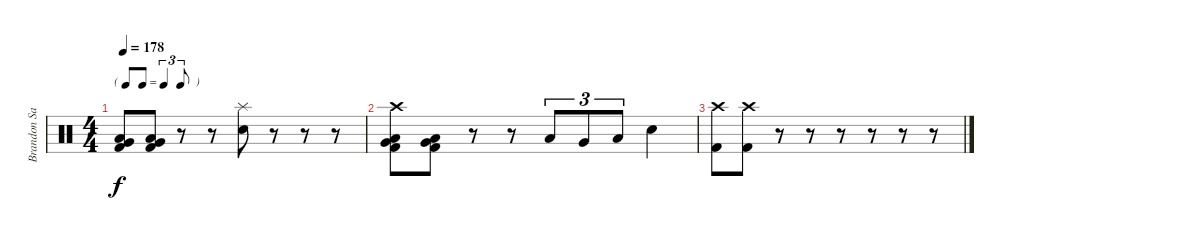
\track ("Brandon Saller" "Brandon Sa") {instrument percussion}
\staff {score}
\articulation defaults
\ts (4 4)
\tf triplet8th
\tempo 178
\clef neutral
\ks c
("Very Low Tom (hit)" "Low Floor Tom (hit)" "Kick (hit) 2").8{dy f} ("Very Low Tom (hit)" "Low Floor Tom (hit)" "Kick (hit) 2").8 r.8 r.8 ("Splash (hit)" "Electric Snare (hit)").8 r.8 r.8 r.8 |
("Crash high (hit)" "Very Low Tom (hit)" "Low Floor Tom (hit)" "Kick (hit) 2").8 ("Very Low Tom (hit)" "Low Floor Tom (hit)" "Kick (hit) 2").8 r.8 r.8 "Low Tom (hit)".8{tu (3 2)} "Very Low Tom (hit)".8{tu (3 2)} "Low Floor Tom (hit)".8{tu (3 2)} "Electric Snare (hit)".4 |
("Crash high (hit)" "Kick (hit) 2").8 ("Crash high (hit)" "Kick (hit) 2").8 r.8 r.8 r.8{volume 0} r.8 r.8 r.8
